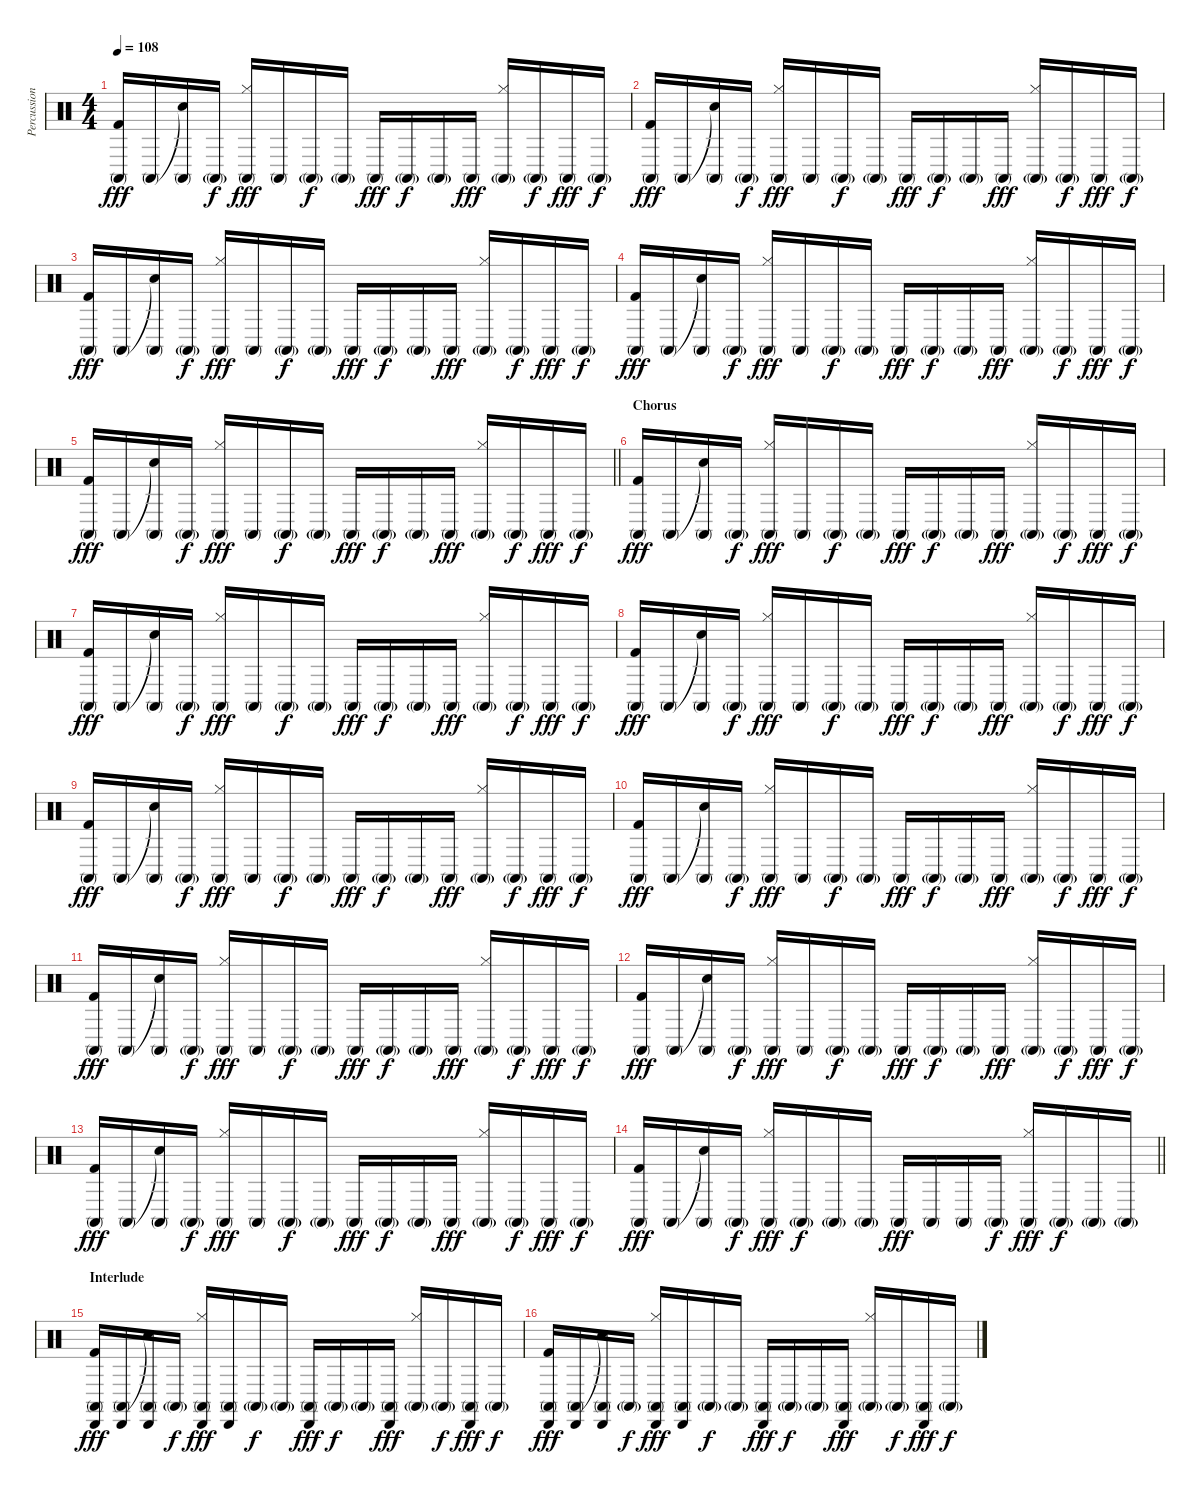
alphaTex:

\track ("Percussion" "Percussion") {instrument percussion}
\staff {score}
\articulation defaults
\ts (4 4)
\tempo 108
\clef neutral
\ks c
("Conga high (mute)" "Kick (hit) 2").16{dy fff} "Conga high (mute)".16 ("Snare (hit)"{t} "Conga high (mute)").16 "Conga high (mute)"{g}.16{dy f} ("Hi-Hat (closed)" "Conga high (mute)").16{dy fff} "Conga high (mute)".16 "Conga high (mute)"{g}.16{dy f} "Conga high (mute)"{g}.16 "Conga high (mute)".16{dy fff} "Conga high (mute)"{g}.16{dy f} "Conga high (mute)"{g}.16 "Conga high (mute)".16{dy fff} ("Hi-Hat (closed)" "Conga high (mute)"{g}).16 "Conga high (mute)"{g}.16{dy f} "Conga high (mute)".16{dy fff} "Conga high (mute)"{g}.16{dy f} |
("Conga high (mute)" "Kick (hit) 2").16{dy fff} "Conga high (mute)".16 ("Snare (hit)"{t} "Conga high (mute)").16 "Conga high (mute)"{g}.16{dy f} ("Hi-Hat (closed)" "Conga high (mute)").16{dy fff} "Conga high (mute)".16 "Conga high (mute)"{g}.16{dy f} "Conga high (mute)"{g}.16 "Conga high (mute)".16{dy fff} "Conga high (mute)"{g}.16{dy f} "Conga high (mute)"{g}.16 "Conga high (mute)".16{dy fff} ("Hi-Hat (closed)" "Conga high (mute)"{g}).16 "Conga high (mute)"{g}.16{dy f} "Conga high (mute)".16{dy fff} "Conga high (mute)"{g}.16{dy f} |
("Conga high (mute)" "Kick (hit) 2").16{dy fff} "Conga high (mute)".16 ("Snare (hit)"{t} "Conga high (mute)").16 "Conga high (mute)"{g}.16{dy f} ("Hi-Hat (closed)" "Conga high (mute)").16{dy fff} "Conga high (mute)".16 "Conga high (mute)"{g}.16{dy f} "Conga high (mute)"{g}.16 "Conga high (mute)".16{dy fff} "Conga high (mute)"{g}.16{dy f} "Conga high (mute)"{g}.16 "Conga high (mute)".16{dy fff} ("Hi-Hat (closed)" "Conga high (mute)"{g}).16 "Conga high (mute)"{g}.16{dy f} "Conga high (mute)".16{dy fff} "Conga high (mute)"{g}.16{dy f} |
("Conga high (mute)" "Kick (hit) 2").16{dy fff} "Conga high (mute)".16 ("Snare (hit)"{t} "Conga high (mute)").16 "Conga high (mute)"{g}.16{dy f} ("Hi-Hat (closed)" "Conga high (mute)").16{dy fff} "Conga high (mute)".16 "Conga high (mute)"{g}.16{dy f} "Conga high (mute)"{g}.16 "Conga high (mute)".16{dy fff} "Conga high (mute)"{g}.16{dy f} "Conga high (mute)"{g}.16 "Conga high (mute)".16{dy fff} ("Hi-Hat (closed)" "Conga high (mute)"{g}).16 "Conga high (mute)"{g}.16{dy f} "Conga high (mute)".16{dy fff} "Conga high (mute)"{g}.16{dy f} |
\barLineRight lightlight
("Conga high (mute)" "Kick (hit) 2").16{dy fff} "Conga high (mute)".16 ("Snare (hit)"{t} "Conga high (mute)").16 "Conga high (mute)"{g}.16{dy f} ("Hi-Hat (closed)" "Conga high (mute)").16{dy fff} "Conga high (mute)".16 "Conga high (mute)"{g}.16{dy f} "Conga high (mute)"{g}.16 "Conga high (mute)".16{dy fff} "Conga high (mute)"{g}.16{dy f} "Conga high (mute)"{g}.16 "Conga high (mute)".16{dy fff} ("Hi-Hat (closed)" "Conga high (mute)"{g}).16 "Conga high (mute)"{g}.16{dy f} "Conga high (mute)".16{dy fff} "Conga high (mute)"{g}.16{dy f} |
\section ("" "Chorus")
("Conga high (mute)" "Kick (hit) 2").16{dy fff} "Conga high (mute)".16 ("Snare (hit)"{t} "Conga high (mute)").16 "Conga high (mute)"{g}.16{dy f} ("Hi-Hat (closed)" "Conga high (mute)").16{dy fff} "Conga high (mute)".16 "Conga high (mute)"{g}.16{dy f} "Conga high (mute)"{g}.16 "Conga high (mute)".16{dy fff} "Conga high (mute)"{g}.16{dy f} "Conga high (mute)"{g}.16 "Conga high (mute)".16{dy fff} ("Hi-Hat (closed)" "Conga high (mute)"{g}).16 "Conga high (mute)"{g}.16{dy f} "Conga high (mute)".16{dy fff} "Conga high (mute)"{g}.16{dy f} |
("Conga high (mute)" "Kick (hit) 2").16{dy fff} "Conga high (mute)".16 ("Snare (hit)"{t} "Conga high (mute)").16 "Conga high (mute)"{g}.16{dy f} ("Hi-Hat (closed)" "Conga high (mute)").16{dy fff} "Conga high (mute)".16 "Conga high (mute)"{g}.16{dy f} "Conga high (mute)"{g}.16 "Conga high (mute)".16{dy fff} "Conga high (mute)"{g}.16{dy f} "Conga high (mute)"{g}.16 "Conga high (mute)".16{dy fff} ("Hi-Hat (closed)" "Conga high (mute)"{g}).16 "Conga high (mute)"{g}.16{dy f} "Conga high (mute)".16{dy fff} "Conga high (mute)"{g}.16{dy f} |
("Conga high (mute)" "Kick (hit) 2").16{dy fff} "Conga high (mute)".16 ("Snare (hit)"{t} "Conga high (mute)").16 "Conga high (mute)"{g}.16{dy f} ("Hi-Hat (closed)" "Conga high (mute)").16{dy fff} "Conga high (mute)".16 "Conga high (mute)"{g}.16{dy f} "Conga high (mute)"{g}.16 "Conga high (mute)".16{dy fff} "Conga high (mute)"{g}.16{dy f} "Conga high (mute)"{g}.16 "Conga high (mute)".16{dy fff} ("Hi-Hat (closed)" "Conga high (mute)"{g}).16 "Conga high (mute)"{g}.16{dy f} "Conga high (mute)".16{dy fff} "Conga high (mute)"{g}.16{dy f} |
("Conga high (mute)" "Kick (hit) 2").16{dy fff} "Conga high (mute)".16 ("Snare (hit)"{t} "Conga high (mute)").16 "Conga high (mute)"{g}.16{dy f} ("Hi-Hat (closed)" "Conga high (mute)").16{dy fff} "Conga high (mute)".16 "Conga high (mute)"{g}.16{dy f} "Conga high (mute)"{g}.16 "Conga high (mute)".16{dy fff} "Conga high (mute)"{g}.16{dy f} "Conga high (mute)"{g}.16 "Conga high (mute)".16{dy fff} ("Hi-Hat (closed)" "Conga high (mute)"{g}).16 "Conga high (mute)"{g}.16{dy f} "Conga high (mute)".16{dy fff} "Conga high (mute)"{g}.16{dy f} |
("Conga high (mute)" "Kick (hit) 2").16{dy fff} "Conga high (mute)".16 ("Snare (hit)"{t} "Conga high (mute)").16 "Conga high (mute)"{g}.16{dy f} ("Hi-Hat (closed)" "Conga high (mute)").16{dy fff} "Conga high (mute)".16 "Conga high (mute)"{g}.16{dy f} "Conga high (mute)"{g}.16 "Conga high (mute)".16{dy fff} "Conga high (mute)"{g}.16{dy f} "Conga high (mute)"{g}.16 "Conga high (mute)".16{dy fff} ("Hi-Hat (closed)" "Conga high (mute)"{g}).16 "Conga high (mute)"{g}.16{dy f} "Conga high (mute)".16{dy fff} "Conga high (mute)"{g}.16{dy f} |
("Conga high (mute)" "Kick (hit) 2").16{dy fff} "Conga high (mute)".16 ("Snare (hit)"{t} "Conga high (mute)").16 "Conga high (mute)"{g}.16{dy f} ("Hi-Hat (closed)" "Conga high (mute)").16{dy fff} "Conga high (mute)".16 "Conga high (mute)"{g}.16{dy f} "Conga high (mute)"{g}.16 "Conga high (mute)".16{dy fff} "Conga high (mute)"{g}.16{dy f} "Conga high (mute)"{g}.16 "Conga high (mute)".16{dy fff} ("Hi-Hat (closed)" "Conga high (mute)"{g}).16 "Conga high (mute)"{g}.16{dy f} "Conga high (mute)".16{dy fff} "Conga high (mute)"{g}.16{dy f} |
("Conga high (mute)" "Kick (hit) 2").16{dy fff} "Conga high (mute)".16 ("Snare (hit)"{t} "Conga high (mute)").16 "Conga high (mute)"{g}.16{dy f} ("Hi-Hat (closed)" "Conga high (mute)").16{dy fff} "Conga high (mute)".16 "Conga high (mute)"{g}.16{dy f} "Conga high (mute)"{g}.16 "Conga high (mute)".16{dy fff} "Conga high (mute)"{g}.16{dy f} "Conga high (mute)"{g}.16 "Conga high (mute)".16{dy fff} ("Hi-Hat (closed)" "Conga high (mute)"{g}).16 "Conga high (mute)"{g}.16{dy f} "Conga high (mute)".16{dy fff} "Conga high (mute)"{g}.16{dy f} |
("Conga high (mute)" "Kick (hit) 2").16{dy fff} "Conga high (mute)".16 ("Snare (hit)"{t} "Conga high (mute)").16 "Conga high (mute)"{g}.16{dy f} ("Hi-Hat (closed)" "Conga high (mute)").16{dy fff} "Conga high (mute)".16 "Conga high (mute)"{g}.16{dy f} "Conga high (mute)"{g}.16 "Conga high (mute)".16{dy fff} "Conga high (mute)"{g}.16{dy f} "Conga high (mute)"{g}.16 "Conga high (mute)".16{dy fff} ("Hi-Hat (closed)" "Conga high (mute)"{g}).16 "Conga high (mute)"{g}.16{dy f} "Conga high (mute)".16{dy fff} "Conga high (mute)"{g}.16{dy f} |
\barLineRight lightlight
("Conga high (mute)" "Kick (hit) 2").16{dy fff} "Conga high (mute)".16 ("Snare (hit)"{t} "Conga high (mute)").16 "Conga high (mute)"{g}.16{dy f} ("Hi-Hat (closed)" "Conga high (mute)").16{dy fff} "Conga high (mute)"{g}.16{dy f} "Conga high (mute)"{g}.16 "Conga high (mute)"{g}.16 "Conga high (mute)".16{dy fff} "Conga high (mute)".16 "Conga high (mute)".16 "Conga high (mute)"{g}.16{dy f} ("Hi-Hat (closed)" "Conga high (mute)").16{dy fff} "Conga high (mute)"{g}.16{dy f} "Conga high (mute)"{g}.16 "Conga high (mute)"{g}.16 |
\section ("" "Interlude")
("Conga high (mute)" "Cabasa (hit)" "Kick (hit) 2").16{dy fff} ("Conga high (mute)" "Cabasa (hit)").16 ("Snare (hit)"{t} "Conga high (mute)" "Cabasa (hit)").16 "Conga high (mute)"{g}.16{dy f} ("Hi-Hat (closed)" "Conga high (mute)" "Cabasa (hit)").16{dy fff} ("Conga high (mute)" "Cabasa (hit)").16 "Conga high (mute)"{g}.16{dy f} "Conga high (mute)"{g}.16 ("Conga high (mute)" "Cabasa (hit)").16{dy fff} "Conga high (mute)"{g}.16{dy f} "Conga high (mute)"{g}.16 ("Conga high (mute)" "Cabasa (hit)").16{dy fff} ("Hi-Hat (closed)" "Conga high (mute)"{g}).16 "Conga high (mute)"{g}.16{dy f} ("Conga high (mute)" "Cabasa (hit)").16{dy fff} "Conga high (mute)"{g}.16{dy f} |
("Conga high (mute)" "Cabasa (hit)" "Kick (hit) 2").16{dy fff} ("Conga high (mute)" "Cabasa (hit)").16 ("Snare (hit)"{t} "Conga high (mute)" "Cabasa (hit)").16 "Conga high (mute)"{g}.16{dy f} ("Hi-Hat (closed)" "Conga high (mute)" "Cabasa (hit)").16{dy fff} ("Conga high (mute)" "Cabasa (hit)").16 "Conga high (mute)"{g}.16{dy f} "Conga high (mute)"{g}.16 ("Conga high (mute)" "Cabasa (hit)").16{dy fff} "Conga high (mute)"{g}.16{dy f} "Conga high (mute)"{g}.16 ("Conga high (mute)" "Cabasa (hit)").16{dy fff} ("Hi-Hat (closed)" "Conga high (mute)"{g}).16 "Conga high (mute)"{g}.16{dy f} ("Conga high (mute)" "Cabasa (hit)").16{dy fff} "Conga high (mute)"{g}.16{dy f}
